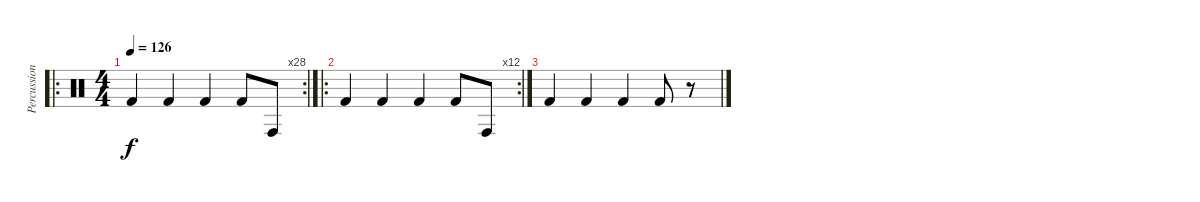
\track ("Percussions" "Percussion") {instrument percussion}
\staff {score}
\articulation defaults
\ro
\rc 28
\ts (4 4)
\tempo 126
\clef neutral
\ks c "Kick (hit) 2".4{dy f} "Kick (hit) 2".4 "Kick (hit) 2".4 "Kick (hit) 2".8 "Conga high (hit)".8
|
\ro
\rc 12 "Kick (hit) 2".4 "Kick (hit) 2".4 "Kick (hit) 2".4 "Kick (hit) 2".8 "Conga high (hit)".8
|
"Kick (hit) 2".4 "Kick (hit) 2".4 "Kick (hit) 2".4 "Kick (hit) 2".8 r.8
